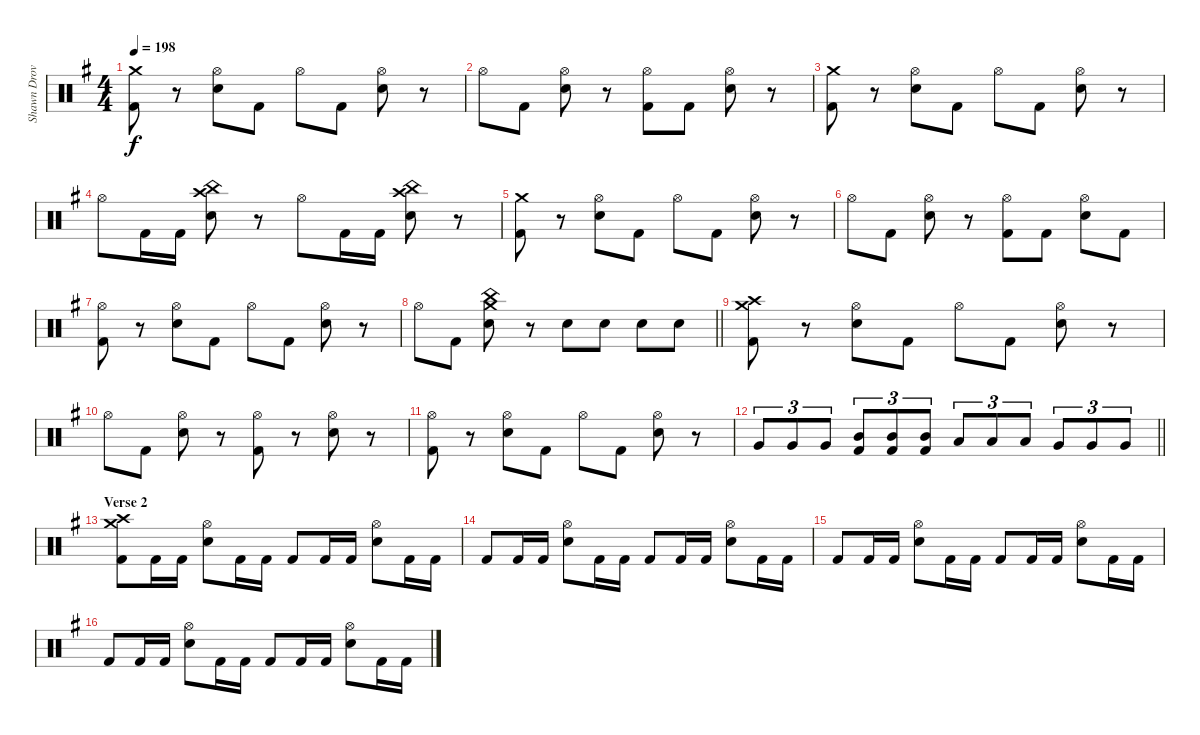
\track ("Shawn Drover" "Shawn Drov") {instrument percussion}
\staff {score}
\articulation defaults
\ts (4 4)
\tempo 198
\clef neutral
\ks g
("Crash medium (hit)" "Kick (hit) 2").8{dy f} r.8 ("Hi-Hat (open)" "Snare (hit) 2").8 "Kick (hit) 2".8 "Hi-Hat (open)".8 "Kick (hit) 2".8 ("Hi-Hat (open)" "Snare (hit) 2").8 r.8 |
"Hi-Hat (open)".8 "Kick (hit) 2".8 ("Hi-Hat (open)" "Snare (hit) 2").8 r.8 ("Hi-Hat (open)" "Kick (hit) 2").8 "Kick (hit) 2".8 ("Hi-Hat (open)" "Snare (hit) 2").8 r.8 |
("Crash medium (hit)" "Kick (hit) 2").8 r.8 ("Hi-Hat (open)" "Snare (hit) 2").8 "Kick (hit) 2".8 "Hi-Hat (open)".8 "Kick (hit) 2".8 ("Hi-Hat (open)" "Snare (hit) 2").8 r.8 |
"Hi-Hat (open)".8 "Kick (hit) 2".16 "Kick (hit) 2".16 ("China (hit)" "Crash high (hit)" "Snare (hit) 2").8 r.8 "Hi-Hat (open)".8 "Kick (hit) 2".16 "Kick (hit) 2".16 ("China (hit)" "Crash high (hit)" "Snare (hit) 2").8 r.8 |
("Crash medium (hit)" "Kick (hit) 2").8 r.8 ("Hi-Hat (open)" "Snare (hit) 2").8 "Kick (hit) 2".8 "Hi-Hat (open)".8 "Kick (hit) 2".8 ("Hi-Hat (open)" "Snare (hit) 2").8 r.8 |
"Hi-Hat (open)".8 "Kick (hit) 2".8 ("Hi-Hat (open)" "Snare (hit) 2").8 r.8 ("Hi-Hat (open)" "Kick (hit) 2").8 "Kick (hit) 2".8 ("Hi-Hat (open)" "Snare (hit) 2").8 "Kick (hit) 2".8 |
("Hi-Hat (open)" "Kick (hit) 2").8 r.8 ("Hi-Hat (open)" "Snare (hit) 2").8 "Kick (hit) 2".8 "Hi-Hat (open)".8 "Kick (hit) 2".8 ("Hi-Hat (open)" "Snare (hit) 2").8 r.8 |
\barLineRight lightlight "Hi-Hat (open)".8 "Kick (hit) 2".8
("Crash medium (hit)" "China (hit)" "Snare (hit) 2").8 r.8 "Snare (hit) 2".8 "Snare (hit) 2".8 "Snare (hit) 2".8 "Snare (hit) 2".8 |
("Crash high (hit)" "Crash medium (hit)" "Kick (hit) 2").8 r.8 ("Hi-Hat (open)" "Snare (hit) 2").8 "Kick (hit) 2".8 "Hi-Hat (open)".8 "Kick (hit) 2".8 ("Hi-Hat (open)" "Snare (hit) 2").8 r.8 |
"Hi-Hat (open)".8 "Kick (hit) 2".8 ("Hi-Hat (open)" "Snare (hit) 2").8 r.8 ("Hi-Hat (open)" "Kick (hit) 2").8 r.8 ("Hi-Hat (open)" "Snare (hit) 2").8 r.8 |
("Hi-Hat (open)" "Kick (hit) 2").8 r.8 ("Hi-Hat (open)" "Snare (hit) 2").8 "Kick (hit) 2".8 "Hi-Hat (open)".8 "Kick (hit) 2".8 ("Hi-Hat (open)" "Snare (hit) 2").8 r.8 |
\barLineRight lightlight "Very Low Tom (hit)".8{tu (3 2)} "Very Low Tom (hit)".8{tu (3 2)} "Very Low Tom (hit)".8{tu (3 2)}
("Mid Tom (hit)" "Kick (hit) 2").8{tu (3 2)} ("Mid Tom (hit)" "Kick (hit) 2").8{tu (3 2)} ("Mid Tom (hit)" "Kick (hit) 2").8{tu (3 2)} "Low Tom (hit)".8{tu (3 2)} "Low Tom (hit)".8{tu (3 2)} "Low Tom (hit)".8{tu (3 2)} "Very Low Tom (hit)".8{tu (3 2)} "Very Low Tom (hit)".8{tu (3 2)} "Very Low Tom (hit)".8{tu (3 2)} |
\section ("" "Verse 2")
("Crash high (hit)" "Crash medium (hit)" "Kick (hit) 2").8 "Kick (hit) 2".16 "Kick (hit) 2".16 ("Hi-Hat (open)" "Snare (hit) 2").8 "Kick (hit) 2".16 "Kick (hit) 2".16 "Kick (hit) 2".8 "Kick (hit) 2".16 "Kick (hit) 2".16 ("Hi-Hat (open)" "Snare (hit) 2").8 "Kick (hit) 2".16 "Kick (hit) 2".16 |
"Kick (hit) 2".8 "Kick (hit) 2".16 "Kick (hit) 2".16 ("Hi-Hat (open)" "Snare (hit) 2").8 "Kick (hit) 2".16 "Kick (hit) 2".16 "Kick (hit) 2".8 "Kick (hit) 2".16 "Kick (hit) 2".16 ("Hi-Hat (open)" "Snare (hit) 2").8 "Kick (hit) 2".16 "Kick (hit) 2".16 |
"Kick (hit) 2".8 "Kick (hit) 2".16 "Kick (hit) 2".16 ("Hi-Hat (open)" "Snare (hit) 2").8 "Kick (hit) 2".16 "Kick (hit) 2".16 "Kick (hit) 2".8 "Kick (hit) 2".16 "Kick (hit) 2".16 ("Hi-Hat (open)" "Snare (hit) 2").8 "Kick (hit) 2".16 "Kick (hit) 2".16 |
"Kick (hit) 2".8 "Kick (hit) 2".16 "Kick (hit) 2".16 ("Hi-Hat (open)" "Snare (hit) 2").8 "Kick (hit) 2".16 "Kick (hit) 2".16 "Kick (hit) 2".8 "Kick (hit) 2".16 "Kick (hit) 2".16 ("Hi-Hat (open)" "Snare (hit) 2").8 "Kick (hit) 2".16 "Kick (hit) 2".16
